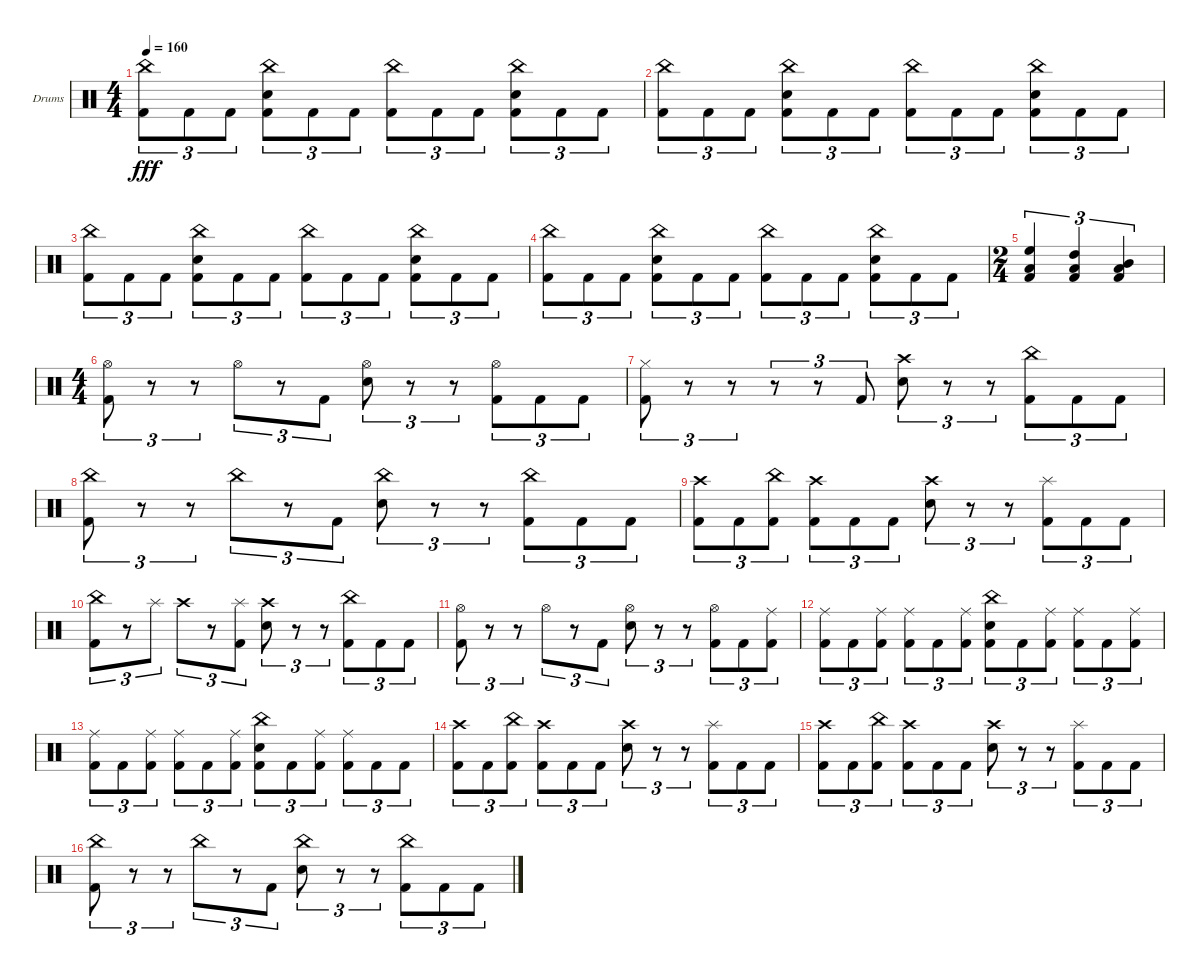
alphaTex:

\bracketExtendMode groupsimilarinstruments
\firstSystemTrackNameOrientation horizontal
\otherSystemsTrackNameOrientation horizontal
\track ("Gigante" "Drums") {instrument percussion}
\staff {score}
\articulation defaults
\ts (4 4)
\beaming (8 2 2 2 2)
\tempo 160
\clef neutral
\ks c
("China (hit)" "Kick (hit) 2").8{tu (3 2) dy fff} "Kick (hit) 2".8{tu (3 2)} "Kick (hit) 2".8{tu (3 2)} ("China (hit)" "Snare (hit) 2" "Kick (hit) 2").8{tu (3 2)} "Kick (hit) 2".8{tu (3 2)} "Kick (hit) 2".8{tu (3 2)} ("China (hit)" "Kick (hit) 2").8{tu (3 2)} "Kick (hit) 2".8{tu (3 2)} "Kick (hit) 2".8{tu (3 2)} ("China (hit)" "Snare (hit) 2" "Kick (hit) 2").8{tu (3 2)} "Kick (hit) 2".8{tu (3 2)} "Kick (hit) 2".8{tu (3 2)} |
("China (hit)" "Kick (hit) 2").8{tu (3 2)} "Kick (hit) 2".8{tu (3 2)} "Kick (hit) 2".8{tu (3 2)} ("China (hit)" "Snare (hit) 2" "Kick (hit) 2").8{tu (3 2)} "Kick (hit) 2".8{tu (3 2)} "Kick (hit) 2".8{tu (3 2)} ("China (hit)" "Kick (hit) 2").8{tu (3 2)} "Kick (hit) 2".8{tu (3 2)} "Kick (hit) 2".8{tu (3 2)} ("China (hit)" "Snare (hit) 2" "Kick (hit) 2").8{tu (3 2)} "Kick (hit) 2".8{tu (3 2)} "Kick (hit) 2".8{tu (3 2)} |
("China (hit)" "Kick (hit) 2").8{tu (3 2)} "Kick (hit) 2".8{tu (3 2)} "Kick (hit) 2".8{tu (3 2)} ("China (hit)" "Snare (hit) 2" "Kick (hit) 2").8{tu (3 2)} "Kick (hit) 2".8{tu (3 2)} "Kick (hit) 2".8{tu (3 2)} ("China (hit)" "Kick (hit) 2").8{tu (3 2)} "Kick (hit) 2".8{tu (3 2)} "Kick (hit) 2".8{tu (3 2)} ("China (hit)" "Snare (hit) 2" "Kick (hit) 2").8{tu (3 2)} "Kick (hit) 2".8{tu (3 2)} "Kick (hit) 2".8{tu (3 2)} |
("China (hit)" "Kick (hit) 2").8{tu (3 2)} "Kick (hit) 2".8{tu (3 2)} "Kick (hit) 2".8{tu (3 2)} ("China (hit)" "Snare (hit) 2" "Kick (hit) 2").8{tu (3 2)} "Kick (hit) 2".8{tu (3 2)} "Kick (hit) 2".8{tu (3 2)} ("China (hit)" "Kick (hit) 2").8{tu (3 2)} "Kick (hit) 2".8{tu (3 2)} "Kick (hit) 2".8{tu (3 2)} ("China (hit)" "Snare (hit) 2" "Kick (hit) 2").8{tu (3 2)} "Kick (hit) 2".8{tu (3 2)} "Kick (hit) 2".8{tu (3 2)} |
\ts (2 4)
\beaming (8 2 2)
("High Floor Tom (hit)" "Low Tom (hit)" "Kick (hit) 2").4{tu (3 2)} ("High Tom (hit)" "Low Tom (hit)" "Kick (hit) 2").4{tu (3 2)} ("Mid Tom (hit)" "Low Tom (hit)" "Kick (hit) 2").4{tu (3 2)} |
\ts (4 4)
\beaming (8 2 2 2 2)
("Hi-Hat (open)" "Kick (hit) 2").8{tu (3 2)} r.8{tu (3 2)} r.8{tu (3 2)} "Hi-Hat (open)".8{tu (3 2)} r.8{tu (3 2)} "Kick (hit) 2".8{tu (3 2)} ("Hi-Hat (open)" "Snare (hit) 2").8{tu (3 2)} r.8{tu (3 2)} r.8{tu (3 2)} ("Hi-Hat (open)" "Kick (hit) 2").8{tu (3 2)} "Kick (hit) 2".8{tu (3 2)} "Kick (hit) 2".8{tu (3 2)} |
("Hi-Hat (closed)" "Kick (hit) 2").8{tu (3 2)} r.8{tu (3 2)} r.8{tu (3 2)} r.8{tu (3 2)} r.8{tu (3 2)} "Kick (hit) 2".8{tu (3 2)} ("Crash high (hit)" "Snare (hit) 2").8{tu (3 2)} r.8{tu (3 2)} r.8{tu (3 2)} ("China (hit)" "Kick (hit) 2").8{tu (3 2)} "Kick (hit) 2".8{tu (3 2)} "Kick (hit) 2".8{tu (3 2)} |
("China (hit)" "Kick (hit) 2").8{tu (3 2)} r.8{tu (3 2)} r.8{tu (3 2)} "China (hit)".8{tu (3 2)} r.8{tu (3 2)} "Kick (hit) 2".8{tu (3 2)} ("China (hit)" "Snare (hit) 2").8{tu (3 2)} r.8{tu (3 2)} r.8{tu (3 2)} ("China (hit)" "Kick (hit) 2").8{tu (3 2)} "Kick (hit) 2".8{tu (3 2)} "Kick (hit) 2".8{tu (3 2)} |
("Crash high (hit)" "Kick (hit) 2").8{tu (3 2)} "Kick (hit) 2".8{tu (3 2)} ("China (hit)" "Kick (hit) 2").8{tu (3 2)} ("Crash high (hit)" "Kick (hit) 2").8{tu (3 2)} "Kick (hit) 2".8{tu (3 2)} "Kick (hit) 2".8{tu (3 2)} ("Crash high (hit)" "Snare (hit) 2").8{tu (3 2)} r.8{tu (3 2)} r.8{tu (3 2)} ("Splash (hit)" "Kick (hit) 2").8{tu (3 2)} "Kick (hit) 2".8{tu (3 2)} "Kick (hit) 2".8{tu (3 2)} |
("China (hit)" "Kick (hit) 2").8{tu (3 2)} r.8{tu (3 2)} "Splash (hit)".8{tu (3 2)} "Crash high (hit)".8{tu (3 2)} r.8{tu (3 2)} ("Splash (hit)" "Kick (hit) 2").8{tu (3 2)} ("Crash high (hit)" "Snare (hit) 2").8{tu (3 2)} r.8{tu (3 2)} r.8{tu (3 2)} ("China (hit)" "Kick (hit) 2").8{tu (3 2)} "Kick (hit) 2".8{tu (3 2)} "Kick (hit) 2".8{tu (3 2)} |
("Hi-Hat (open)" "Kick (hit) 2").8{tu (3 2)} r.8{tu (3 2)} r.8{tu (3 2)} "Hi-Hat (open)".8{tu (3 2)} r.8{tu (3 2)} "Kick (hit) 2".8{tu (3 2)} ("Hi-Hat (open)" "Snare (hit) 2").8{tu (3 2)} r.8{tu (3 2)} r.8{tu (3 2)} ("Hi-Hat (open)" "Kick (hit) 2").8{tu (3 2)} "Kick (hit) 2".8{tu (3 2)} ("Ride (middle)" "Kick (hit) 2").8{tu (3 2)} |
("Ride (middle)" "Kick (hit) 2").8{tu (3 2)} "Kick (hit) 2".8{tu (3 2)} ("Ride (middle)" "Kick (hit) 2").8{tu (3 2)} ("Ride (middle)" "Kick (hit) 2").8{tu (3 2)} "Kick (hit) 2".8{tu (3 2)} ("Ride (middle)" "Kick (hit) 2").8{tu (3 2)} ("China (hit)" "Snare (hit) 2" "Kick (hit) 2").8{tu (3 2)} "Kick (hit) 2".8{tu (3 2)} ("Ride (middle)" "Kick (hit) 2").8{tu (3 2)} ("Ride (middle)" "Kick (hit) 2").8{tu (3 2)} "Kick (hit) 2".8{tu (3 2)} ("Ride (middle)" "Kick (hit) 2").8{tu (3 2)} |
("Ride (middle)" "Kick (hit) 2").8{tu (3 2)} "Kick (hit) 2".8{tu (3 2)} ("Ride (middle)" "Kick (hit) 2").8{tu (3 2)} ("Ride (middle)" "Kick (hit) 2").8{tu (3 2)} "Kick (hit) 2".8{tu (3 2)} ("Ride (middle)" "Kick (hit) 2").8{tu (3 2)} ("China (hit)" "Snare (hit) 2" "Kick (hit) 2").8{tu (3 2)} "Kick (hit) 2".8{tu (3 2)} ("Ride (middle)" "Kick (hit) 2").8{tu (3 2)} ("Ride (middle)" "Kick (hit) 2").8{tu (3 2)} "Kick (hit) 2".8{tu (3 2)} "Kick (hit) 2".8{tu (3 2)} |
("Crash high (hit)" "Kick (hit) 2").8{tu (3 2)} "Kick (hit) 2".8{tu (3 2)} ("China (hit)" "Kick (hit) 2").8{tu (3 2)} ("Crash high (hit)" "Kick (hit) 2").8{tu (3 2)} "Kick (hit) 2".8{tu (3 2)} "Kick (hit) 2".8{tu (3 2)} ("Crash high (hit)" "Snare (hit) 2").8{tu (3 2)} r.8{tu (3 2)} r.8{tu (3 2)} ("Splash (hit)" "Kick (hit) 2").8{tu (3 2)} "Kick (hit) 2".8{tu (3 2)} "Kick (hit) 2".8{tu (3 2)} |
("Crash high (hit)" "Kick (hit) 2").8{tu (3 2)} "Kick (hit) 2".8{tu (3 2)} ("China (hit)" "Kick (hit) 2").8{tu (3 2)} ("Crash high (hit)" "Kick (hit) 2").8{tu (3 2)} "Kick (hit) 2".8{tu (3 2)} "Kick (hit) 2".8{tu (3 2)} ("Crash high (hit)" "Snare (hit) 2").8{tu (3 2)} r.8{tu (3 2)} r.8{tu (3 2)} ("Splash (hit)" "Kick (hit) 2").8{tu (3 2)} "Kick (hit) 2".8{tu (3 2)} "Kick (hit) 2".8{tu (3 2)} |
("China (hit)" "Kick (hit) 2").8{tu (3 2)} r.8{tu (3 2)} r.8{tu (3 2)} "China (hit)".8{tu (3 2)} r.8{tu (3 2)} "Kick (hit) 2".8{tu (3 2)} ("China (hit)" "Snare (hit) 2").8{tu (3 2)} r.8{tu (3 2)} r.8{tu (3 2)} ("China (hit)" "Kick (hit) 2").8{tu (3 2)} "Kick (hit) 2".8{tu (3 2)} "Kick (hit) 2".8{tu (3 2)}
